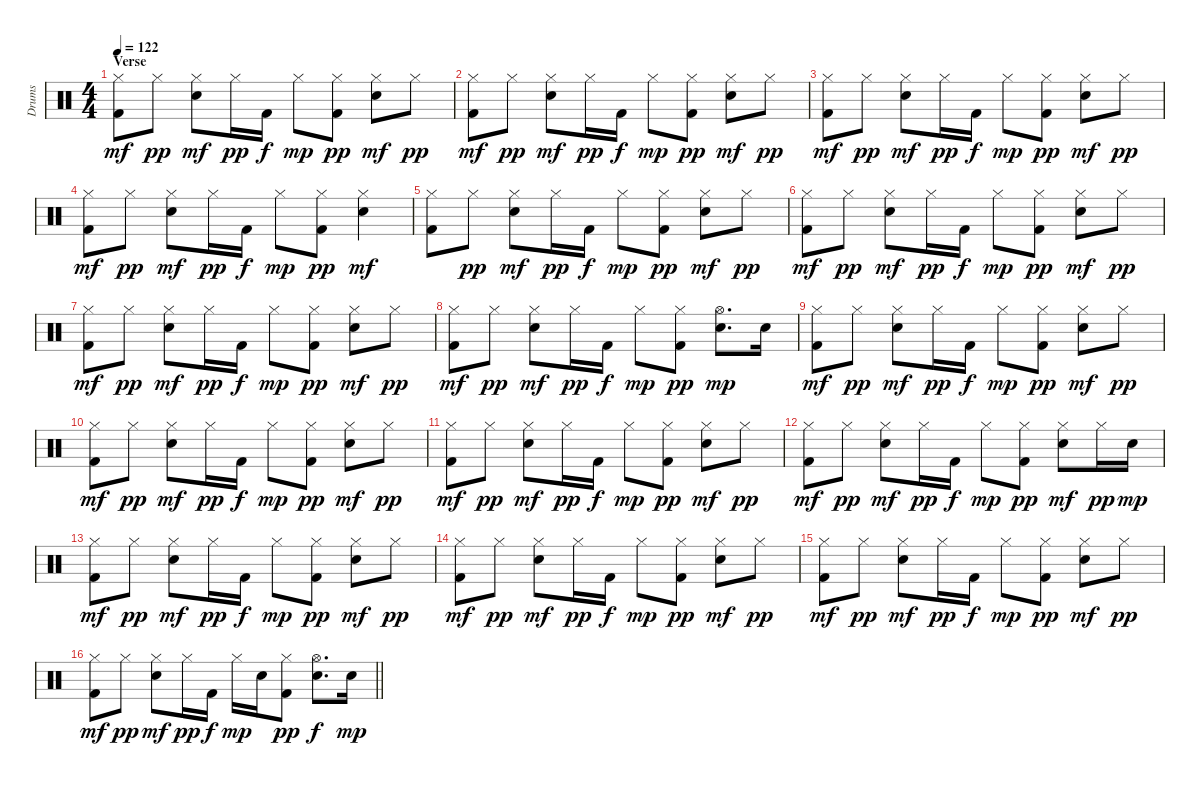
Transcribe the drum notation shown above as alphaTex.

\track ("Drums" "Drums") {instrument percussion}
\staff {score}
\articulation defaults
\ts (4 4)
\section ("" "Verse")
\tempo 122
\clef neutral
\ks c
("Hi-Hat (closed)" "Kick (hit) 2").8{dy mf} "Hi-Hat (closed)".8{dy pp} ("Hi-Hat (closed)" "Electric Snare (hit)").8{dy mf} "Hi-Hat (closed)".16{dy pp} "Kick (hit) 2".16{dy f} "Hi-Hat (closed)".8{dy mp} ("Hi-Hat (closed)" "Kick (hit) 2").8{dy pp} ("Hi-Hat (closed)" "Electric Snare (hit)").8{dy mf} "Hi-Hat (closed)".8{dy pp} |
("Hi-Hat (closed)" "Kick (hit) 2").8{dy mf} "Hi-Hat (closed)".8{dy pp} ("Hi-Hat (closed)" "Electric Snare (hit)").8{dy mf} "Hi-Hat (closed)".16{dy pp} "Kick (hit) 2".16{dy f} "Hi-Hat (closed)".8{dy mp} ("Hi-Hat (closed)" "Kick (hit) 2").8{dy pp} ("Hi-Hat (closed)" "Electric Snare (hit)").8{dy mf} "Hi-Hat (closed)".8{dy pp} |
("Hi-Hat (closed)" "Kick (hit) 2").8{dy mf} "Hi-Hat (closed)".8{dy pp} ("Hi-Hat (closed)" "Electric Snare (hit)").8{dy mf} "Hi-Hat (closed)".16{dy pp} "Kick (hit) 2".16{dy f} "Hi-Hat (closed)".8{dy mp} ("Hi-Hat (closed)" "Kick (hit) 2").8{dy pp} ("Hi-Hat (closed)" "Electric Snare (hit)").8{dy mf} "Hi-Hat (closed)".8{dy pp} |
("Hi-Hat (closed)" "Kick (hit) 2").8{dy mf} "Hi-Hat (closed)".8{dy pp} ("Hi-Hat (closed)" "Electric Snare (hit)").8{dy mf} "Hi-Hat (closed)".16{dy pp} "Kick (hit) 2".16{dy f} "Hi-Hat (closed)".8{dy mp} ("Hi-Hat (closed)" "Kick (hit) 2").8{dy pp} ("Hi-Hat (closed)" "Electric Snare (hit)").4{dy mf} |
("Hi-Hat (closed)" "Kick (hit) 2").8 "Hi-Hat (closed)".8{dy pp} ("Hi-Hat (closed)" "Electric Snare (hit)").8{dy mf} "Hi-Hat (closed)".16{dy pp} "Kick (hit) 2".16{dy f} "Hi-Hat (closed)".8{dy mp} ("Hi-Hat (closed)" "Kick (hit) 2").8{dy pp} ("Hi-Hat (closed)" "Electric Snare (hit)").8{dy mf} "Hi-Hat (closed)".8{dy pp} |
("Hi-Hat (closed)" "Kick (hit) 2").8{dy mf} "Hi-Hat (closed)".8{dy pp} ("Hi-Hat (closed)" "Electric Snare (hit)").8{dy mf} "Hi-Hat (closed)".16{dy pp} "Kick (hit) 2".16{dy f} "Hi-Hat (closed)".8{dy mp} ("Hi-Hat (closed)" "Kick (hit) 2").8{dy pp} ("Hi-Hat (closed)" "Electric Snare (hit)").8{dy mf} "Hi-Hat (closed)".8{dy pp} |
("Hi-Hat (closed)" "Kick (hit) 2").8{dy mf} "Hi-Hat (closed)".8{dy pp} ("Hi-Hat (closed)" "Electric Snare (hit)").8{dy mf} "Hi-Hat (closed)".16{dy pp} "Kick (hit) 2".16{dy f} "Hi-Hat (closed)".8{dy mp} ("Hi-Hat (closed)" "Kick (hit) 2").8{dy pp} ("Hi-Hat (closed)" "Electric Snare (hit)").8{dy mf} "Hi-Hat (closed)".8{dy pp} |
("Hi-Hat (closed)" "Kick (hit) 2").8{dy mf} "Hi-Hat (closed)".8{dy pp} ("Hi-Hat (closed)" "Electric Snare (hit)").8{dy mf} "Hi-Hat (closed)".16{dy pp} "Kick (hit) 2".16{dy f} "Hi-Hat (closed)".8{dy mp} ("Hi-Hat (closed)" "Kick (hit) 2").8{dy pp} ("Hi-Hat (open)" "Electric Snare (hit)").8{d dy mp} "Electric Snare (hit)".16 |
("Hi-Hat (closed)" "Kick (hit) 2").8{dy mf} "Hi-Hat (closed)".8{dy pp} ("Hi-Hat (closed)" "Electric Snare (hit)").8{dy mf} "Hi-Hat (closed)".16{dy pp} "Kick (hit) 2".16{dy f} "Hi-Hat (closed)".8{dy mp} ("Hi-Hat (closed)" "Kick (hit) 2").8{dy pp} ("Hi-Hat (closed)" "Electric Snare (hit)").8{dy mf} "Hi-Hat (closed)".8{dy pp} |
("Hi-Hat (closed)" "Kick (hit) 2").8{dy mf} "Hi-Hat (closed)".8{dy pp} ("Hi-Hat (closed)" "Electric Snare (hit)").8{dy mf} "Hi-Hat (closed)".16{dy pp} "Kick (hit) 2".16{dy f} "Hi-Hat (closed)".8{dy mp} ("Hi-Hat (closed)" "Kick (hit) 2").8{dy pp} ("Hi-Hat (closed)" "Electric Snare (hit)").8{dy mf} "Hi-Hat (closed)".8{dy pp} |
("Hi-Hat (closed)" "Kick (hit) 2").8{dy mf} "Hi-Hat (closed)".8{dy pp} ("Hi-Hat (closed)" "Electric Snare (hit)").8{dy mf} "Hi-Hat (closed)".16{dy pp} "Kick (hit) 2".16{dy f} "Hi-Hat (closed)".8{dy mp} ("Hi-Hat (closed)" "Kick (hit) 2").8{dy pp} ("Hi-Hat (closed)" "Electric Snare (hit)").8{dy mf} "Hi-Hat (closed)".8{dy pp} |
("Hi-Hat (closed)" "Kick (hit) 2").8{dy mf} "Hi-Hat (closed)".8{dy pp} ("Hi-Hat (closed)" "Electric Snare (hit)").8{dy mf} "Hi-Hat (closed)".16{dy pp} "Kick (hit) 2".16{dy f} "Hi-Hat (closed)".8{dy mp} ("Hi-Hat (closed)" "Kick (hit) 2").8{dy pp} ("Hi-Hat (closed)" "Electric Snare (hit)").8{dy mf} "Hi-Hat (closed)".16{dy pp} "Electric Snare (hit)".16{dy mp} |
("Hi-Hat (closed)" "Kick (hit) 2").8{dy mf} "Hi-Hat (closed)".8{dy pp} ("Hi-Hat (closed)" "Electric Snare (hit)").8{dy mf} "Hi-Hat (closed)".16{dy pp} "Kick (hit) 2".16{dy f} "Hi-Hat (closed)".8{dy mp} ("Hi-Hat (closed)" "Kick (hit) 2").8{dy pp} ("Hi-Hat (closed)" "Electric Snare (hit)").8{dy mf} "Hi-Hat (closed)".8{dy pp} |
("Hi-Hat (closed)" "Kick (hit) 2").8{dy mf} "Hi-Hat (closed)".8{dy pp} ("Hi-Hat (closed)" "Electric Snare (hit)").8{dy mf} "Hi-Hat (closed)".16{dy pp} "Kick (hit) 2".16{dy f} "Hi-Hat (closed)".8{dy mp} ("Hi-Hat (closed)" "Kick (hit) 2").8{dy pp} ("Hi-Hat (closed)" "Electric Snare (hit)").8{dy mf} "Hi-Hat (closed)".8{dy pp} |
("Hi-Hat (closed)" "Kick (hit) 2").8{dy mf} "Hi-Hat (closed)".8{dy pp} ("Hi-Hat (closed)" "Electric Snare (hit)").8{dy mf} "Hi-Hat (closed)".16{dy pp} "Kick (hit) 2".16{dy f} "Hi-Hat (closed)".8{dy mp} ("Hi-Hat (closed)" "Kick (hit) 2").8{dy pp} ("Hi-Hat (closed)" "Electric Snare (hit)").8{dy mf} "Hi-Hat (closed)".8{dy pp} |
\barLineRight lightlight
("Hi-Hat (closed)" "Kick (hit) 2").8{dy mf} "Hi-Hat (closed)".8{dy pp} ("Hi-Hat (closed)" "Electric Snare (hit)").8{dy mf} "Hi-Hat (closed)".16{dy pp} "Kick (hit) 2".16{dy f} "Hi-Hat (closed)".16{dy mp} "Electric Snare (hit)".16 ("Hi-Hat (closed)" "Kick (hit) 2").8{dy pp} ("Hi-Hat (open)" "Electric Snare (hit)").8{d dy f} "Electric Snare (hit)".16{dy mp}
